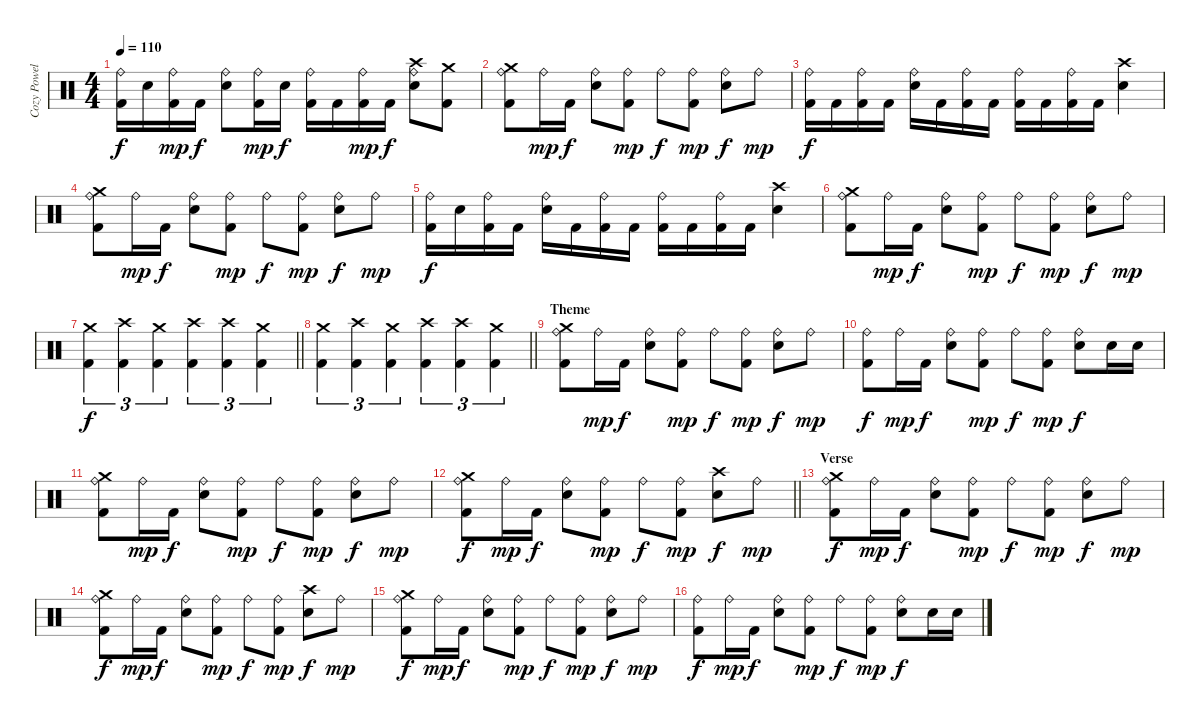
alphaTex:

\track ("Cozy Powell" "Cozy Powel") {instrument percussion}
\staff {score}
\articulation defaults
\ts (4 4)
\tempo 110
\clef neutral
\ks c
("Ride (bell)" "Kick (hit) 2").16{dy f} "Snare (hit) 2".16 ("Ride (bell)" "Kick (hit) 2").16{dy mp} "Kick (hit) 2".16{dy f} ("Ride (bell)" "Snare (hit) 2").8 ("Ride (bell)" "Kick (hit) 2").16{dy mp} "Snare (hit) 2".16{dy f} ("Ride (bell)" "Kick (hit) 2").16 "Kick (hit) 2".16 ("Ride (bell)" "Kick (hit) 2").16{dy mp} "Kick (hit) 2".16{dy f} ("Crash high (hit)" "Ride (bell)" "Snare (hit) 2").8 ("Crash medium (hit)" "Kick (hit) 2").8 |
("Crash medium (hit)" "Ride (bell)" "Kick (hit) 2").8 "Ride (bell)".16{dy mp} "Kick (hit) 2".16{dy f} ("Ride (bell)" "Snare (hit) 2").8 ("Ride (bell)" "Kick (hit) 2").8{dy mp} "Ride (bell)".8{dy f} ("Ride (bell)" "Kick (hit) 2").8{dy mp} ("Ride (bell)" "Snare (hit) 2").8{dy f} "Ride (bell)".8{dy mp} |
("Ride (bell)" "Kick (hit) 2").16{dy f} "Kick (hit) 2".16 ("Ride (bell)" "Kick (hit) 2").16 "Kick (hit) 2".16 ("Ride (bell)" "Snare (hit) 2").16 "Kick (hit) 2".16 ("Ride (bell)" "Kick (hit) 2").16 "Kick (hit) 2".16 ("Ride (bell)" "Kick (hit) 2").16 "Kick (hit) 2".16 ("Ride (bell)" "Kick (hit) 2").16 "Kick (hit) 2".16 ("Crash high (hit)" "Snare (hit) 2").4 |
("Crash medium (hit)" "Ride (bell)" "Kick (hit) 2").8 "Ride (bell)".16{dy mp} "Kick (hit) 2".16{dy f} ("Ride (bell)" "Snare (hit) 2").8 ("Ride (bell)" "Kick (hit) 2").8{dy mp} "Ride (bell)".8{dy f} ("Ride (bell)" "Kick (hit) 2").8{dy mp} ("Ride (bell)" "Snare (hit) 2").8{dy f} "Ride (bell)".8{dy mp} |
("Ride (bell)" "Kick (hit) 2").16{dy f} "Snare (hit) 2".16 ("Ride (bell)" "Kick (hit) 2").16 "Kick (hit) 2".16 ("Ride (bell)" "Snare (hit) 2").16 "Kick (hit) 2".16 ("Ride (bell)" "Kick (hit) 2").16 "Kick (hit) 2".16 ("Ride (bell)" "Kick (hit) 2").16 "Kick (hit) 2".16 ("Ride (bell)" "Kick (hit) 2").16 "Kick (hit) 2".16 ("Crash high (hit)" "Snare (hit) 2").4 |
("Crash medium (hit)" "Ride (bell)" "Kick (hit) 2").8 "Ride (bell)".16{dy mp} "Kick (hit) 2".16{dy f} ("Ride (bell)" "Snare (hit) 2").8 ("Ride (bell)" "Kick (hit) 2").8{dy mp} "Ride (bell)".8{dy f} ("Ride (bell)" "Kick (hit) 2").8{dy mp} ("Ride (bell)" "Snare (hit) 2").8{dy f} "Ride (bell)".8{dy mp} |
\barLineRight lightlight
("Crash medium (hit)" "Kick (hit) 2").4{tu (3 2) dy f} ("Crash high (hit)" "Kick (hit) 2").4{tu (3 2)} ("Crash medium (hit)" "Kick (hit) 2").4{tu (3 2)} ("Crash high (hit)" "Kick (hit) 2").4{tu (3 2)} ("Crash high (hit)" "Kick (hit) 2").4{tu (3 2)} ("Crash medium (hit)" "Kick (hit) 2").4{tu (3 2)} |
\barLineRight lightlight
("Crash medium (hit)" "Kick (hit) 2").4{tu (3 2)} ("Crash high (hit)" "Kick (hit) 2").4{tu (3 2)} ("Crash medium (hit)" "Kick (hit) 2").4{tu (3 2)} ("Crash high (hit)" "Kick (hit) 2").4{tu (3 2)} ("Crash high (hit)" "Kick (hit) 2").4{tu (3 2)} ("Crash medium (hit)" "Kick (hit) 2").4{tu (3 2)} |
\section ("" "Theme")
("Crash medium (hit)" "Ride (bell)" "Kick (hit) 2").8 "Ride (bell)".16{dy mp} "Kick (hit) 2".16{dy f} ("Ride (bell)" "Snare (hit) 2").8 ("Ride (bell)" "Kick (hit) 2").8{dy mp} "Ride (bell)".8{dy f} ("Ride (bell)" "Kick (hit) 2").8{dy mp} ("Ride (bell)" "Snare (hit) 2").8{dy f} "Ride (bell)".8{dy mp} |
("Ride (bell)" "Kick (hit) 2").8{dy f} "Ride (bell)".16{dy mp} "Kick (hit) 2".16{dy f} ("Ride (bell)" "Snare (hit) 2").8 ("Ride (bell)" "Kick (hit) 2").8{dy mp} "Ride (bell)".8{dy f} ("Ride (bell)" "Kick (hit) 2").8{dy mp} ("Ride (bell)" "Snare (hit) 2").8{dy f} "Snare (hit) 2".16 "Snare (hit) 2".16 |
("Crash medium (hit)" "Ride (bell)" "Kick (hit) 2").8 "Ride (bell)".16{dy mp} "Kick (hit) 2".16{dy f} ("Ride (bell)" "Snare (hit) 2").8 ("Ride (bell)" "Kick (hit) 2").8{dy mp} "Ride (bell)".8{dy f} ("Ride (bell)" "Kick (hit) 2").8{dy mp} ("Ride (bell)" "Snare (hit) 2").8{dy f} "Ride (bell)".8{dy mp} |
\barLineRight lightlight
("Crash medium (hit)" "Ride (bell)" "Kick (hit) 2").8{dy f} "Ride (bell)".16{dy mp} "Kick (hit) 2".16{dy f} ("Ride (bell)" "Snare (hit) 2").8 ("Ride (bell)" "Kick (hit) 2").8{dy mp} "Ride (bell)".8{dy f} ("Ride (bell)" "Kick (hit) 2").8{dy mp} ("Crash high (hit)" "Snare (hit) 2").8{dy f} "Ride (bell)".8{dy mp} |
\section ("" "Verse")
("Crash medium (hit)" "Ride (bell)" "Kick (hit) 2").8{dy f} "Ride (bell)".16{dy mp} "Kick (hit) 2".16{dy f} ("Ride (bell)" "Snare (hit) 2").8 ("Ride (bell)" "Kick (hit) 2").8{dy mp} "Ride (bell)".8{dy f} ("Ride (bell)" "Kick (hit) 2").8{dy mp} ("Ride (bell)" "Snare (hit) 2").8{dy f} "Ride (bell)".8{dy mp} |
("Crash medium (hit)" "Ride (bell)" "Kick (hit) 2").8{dy f} "Ride (bell)".16{dy mp} "Kick (hit) 2".16{dy f} ("Ride (bell)" "Snare (hit) 2").8 ("Ride (bell)" "Kick (hit) 2").8{dy mp} "Ride (bell)".8{dy f} ("Ride (bell)" "Kick (hit) 2").8{dy mp} ("Crash high (hit)" "Snare (hit) 2").8{dy f} "Ride (bell)".8{dy mp} |
("Crash medium (hit)" "Ride (bell)" "Kick (hit) 2").8{dy f} "Ride (bell)".16{dy mp} "Kick (hit) 2".16{dy f} ("Ride (bell)" "Snare (hit) 2").8 ("Ride (bell)" "Kick (hit) 2").8{dy mp} "Ride (bell)".8{dy f} ("Ride (bell)" "Kick (hit) 2").8{dy mp} ("Ride (bell)" "Snare (hit) 2").8{dy f} "Ride (bell)".8{dy mp} |
("Ride (bell)" "Kick (hit) 2").8{dy f} "Ride (bell)".16{dy mp} "Kick (hit) 2".16{dy f} ("Ride (bell)" "Snare (hit) 2").8 ("Ride (bell)" "Kick (hit) 2").8{dy mp} "Ride (bell)".8{dy f} ("Ride (bell)" "Kick (hit) 2").8{dy mp} ("Ride (bell)" "Snare (hit) 2").8{dy f} "Snare (hit) 2".16 "Snare (hit) 2".16
